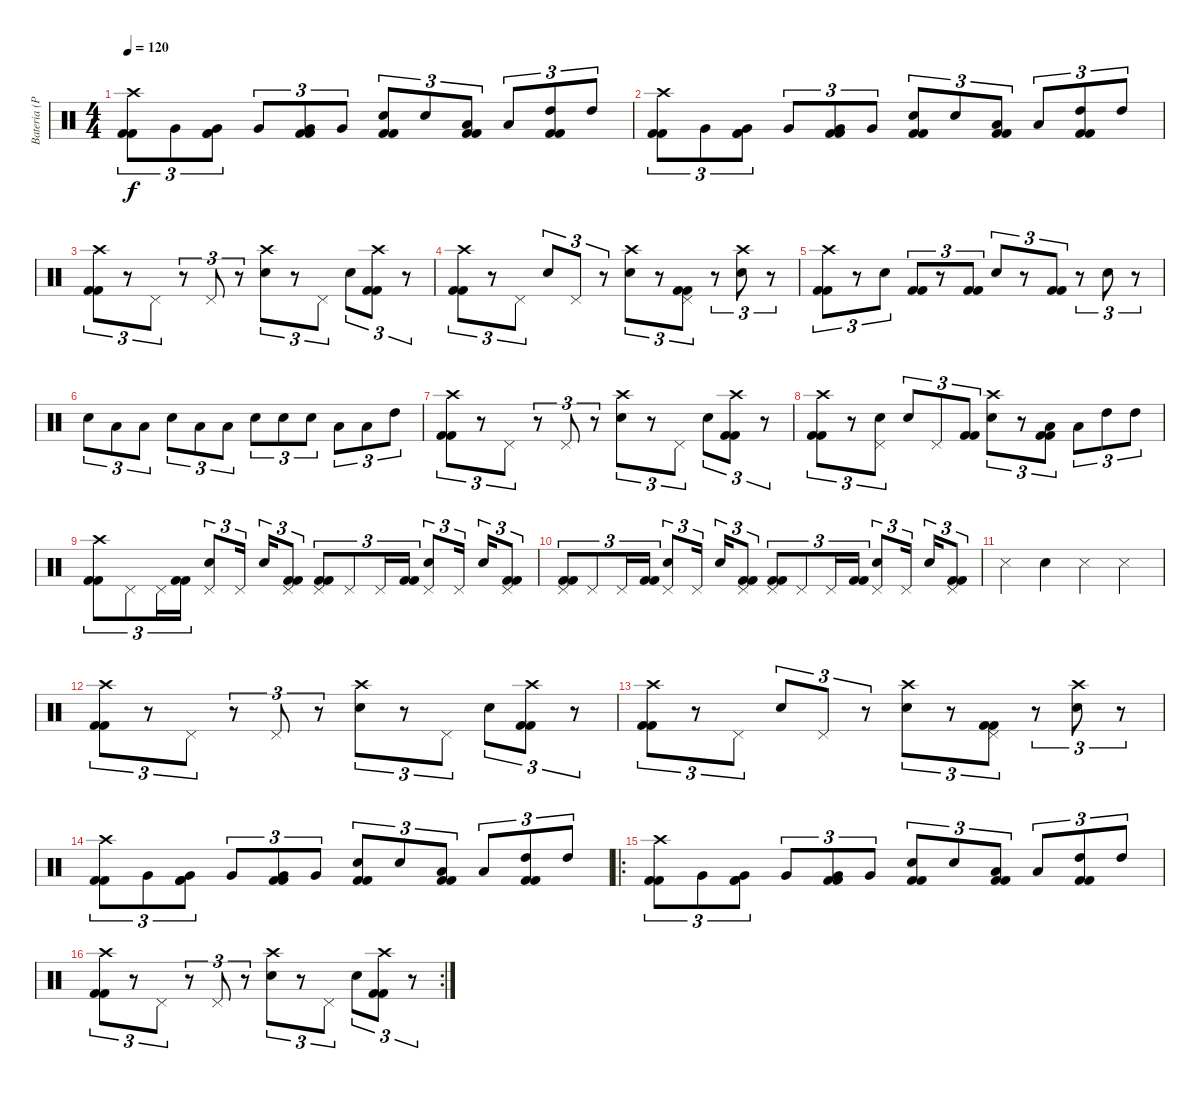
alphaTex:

\track ("Bateria (Pedro Cota)" "Bateria (P") {instrument percussion}
\staff {score}
\articulation defaults
\ts (4 4)
\tempo 120
\clef neutral
\ks c
("Crash high (hit)" "Kick (hit) 2" "Kick (hit) 2").8{tu (3 2) dy f} "Very Low Tom (hit)".8{tu (3 2)} ("Very Low Tom (hit)" "Kick (hit) 2" "Kick (hit) 2").8{tu (3 2)} "Very Low Tom (hit)".8{tu (3 2)} ("Very Low Tom (hit)" "Kick (hit) 2" "Kick (hit) 2").8{tu (3 2)} "Very Low Tom (hit)".8{tu (3 2)} ("Snare (hit) 2" "Kick (hit) 2" "Kick (hit) 2").8{tu (3 2)} "Snare (hit) 2".8{tu (3 2)} ("Low Tom (hit)" "Kick (hit) 2" "Kick (hit) 2").8{tu (3 2)} "Low Tom (hit)".8{tu (3 2)} ("High Tom (hit)" "Kick (hit) 2" "Kick (hit) 2").8{tu (3 2)} "High Tom (hit)".8{tu (3 2)} |
("Crash high (hit)" "Kick (hit) 2" "Kick (hit) 2").8{tu (3 2)} "Very Low Tom (hit)".8{tu (3 2)} ("Very Low Tom (hit)" "Kick (hit) 2" "Kick (hit) 2").8{tu (3 2)} "Very Low Tom (hit)".8{tu (3 2)} ("Very Low Tom (hit)" "Kick (hit) 2" "Kick (hit) 2").8{tu (3 2)} "Very Low Tom (hit)".8{tu (3 2)} ("Snare (hit) 2" "Kick (hit) 2" "Kick (hit) 2").8{tu (3 2)} "Snare (hit) 2".8{tu (3 2)} ("Low Tom (hit)" "Kick (hit) 2" "Kick (hit) 2").8{tu (3 2)} "Low Tom (hit)".8{tu (3 2)} ("High Tom (hit)" "Kick (hit) 2" "Kick (hit) 2").8{tu (3 2)} "High Tom (hit)".8{tu (3 2)} |
("Crash high (hit)" "Kick (hit) 2" "Kick (hit) 2").8{tu (3 2)} r.8{tu (3 2)} "Pedal Hi-Hat (hit)".8{tu (3 2)} r.8{tu (3 2)} "Pedal Hi-Hat (hit)".8{tu (3 2)} r.8{tu (3 2)} ("Crash high (hit)" "Snare (hit) 2").8{tu (3 2)} r.8{tu (3 2)} "Pedal Hi-Hat (hit)".8{tu (3 2)} "Snare (hit) 2".8{tu (3 2)} ("Crash high (hit)" "Kick (hit) 2" "Kick (hit) 2").8{tu (3 2)} r.8{tu (3 2)} |
("Crash high (hit)" "Kick (hit) 2" "Kick (hit) 2").8{tu (3 2)} r.8{tu (3 2)} "Pedal Hi-Hat (hit)".8{tu (3 2)} "Snare (hit) 2".8{tu (3 2)} "Pedal Hi-Hat (hit)".8{tu (3 2)} r.8{tu (3 2)} ("Crash high (hit)" "Snare (hit) 2").8{tu (3 2)} r.8{tu (3 2)} ("Pedal Hi-Hat (hit)" "Kick (hit) 2" "Kick (hit) 2").8{tu (3 2)} r.8{tu (3 2)} ("Crash high (hit)" "Snare (hit) 2").8{tu (3 2)} r.8{tu (3 2)} |
("Crash high (hit)" "Kick (hit) 2" "Kick (hit) 2").8{tu (3 2)} r.8{tu (3 2)} "Snare (hit) 2".8{tu (3 2)} ("Kick (hit) 2" "Kick (hit) 2").8{tu (3 2)} r.8{tu (3 2)} ("Kick (hit) 2" "Kick (hit) 2").8{tu (3 2)} "Snare (hit) 2".8{tu (3 2)} r.8{tu (3 2)} ("Kick (hit) 2" "Kick (hit) 2").8{tu (3 2)} r.8{tu (3 2)} "Snare (hit) 2".8{tu (3 2)} r.8{tu (3 2)} |
"Snare (hit) 2".8{tu (3 2)} "Low Tom (hit)".8{tu (3 2)} "Low Tom (hit)".8{tu (3 2)} "Snare (hit) 2".8{tu (3 2)} "Low Tom (hit)".8{tu (3 2)} "Low Tom (hit)".8{tu (3 2)} "Snare (hit) 2".8{tu (3 2)} "Snare (hit) 2".8{tu (3 2)} "Snare (hit) 2".8{tu (3 2)} "Low Tom (hit)".8{tu (3 2)} "Low Tom (hit)".8{tu (3 2)} "High Tom (hit)".8{tu (3 2)} |
("Crash high (hit)" "Kick (hit) 2" "Kick (hit) 2").8{tu (3 2)} r.8{tu (3 2)} "Pedal Hi-Hat (hit)".8{tu (3 2)} r.8{tu (3 2)} "Pedal Hi-Hat (hit)".8{tu (3 2)} r.8{tu (3 2)} ("Crash high (hit)" "Snare (hit) 2").8{tu (3 2)} r.8{tu (3 2)} "Pedal Hi-Hat (hit)".8{tu (3 2)} "Snare (hit) 2".8{tu (3 2)} ("Crash high (hit)" "Kick (hit) 2" "Kick (hit) 2").8{tu (3 2)} r.8{tu (3 2)} |
("Crash high (hit)" "Kick (hit) 2" "Kick (hit) 2").8{tu (3 2)} r.8{tu (3 2)} ("Pedal Hi-Hat (hit)" "Snare (hit) 2").8{tu (3 2)} "Snare (hit) 2".8{tu (3 2)} "Pedal Hi-Hat (hit)".8{tu (3 2)} ("Kick (hit) 2" "Kick (hit) 2").8{tu (3 2)} ("Crash high (hit)" "Snare (hit) 2").8{tu (3 2)} r.8{tu (3 2)} ("Low Tom (hit)" "Kick (hit) 2" "Kick (hit) 2").8{tu (3 2)} "Low Tom (hit)".8{tu (3 2)} "High Tom (hit)".8{tu (3 2)} "High Tom (hit)".8{tu (3 2)} |
("Crash high (hit)" "Kick (hit) 2" "Kick (hit) 2").8{tu (3 2)} "Pedal Hi-Hat (hit)".8{tu (3 2)} "Pedal Hi-Hat (hit)".16{tu (3 2)} ("Kick (hit) 2" "Kick (hit) 2").16{tu (3 2)} ("Pedal Hi-Hat (hit)" "Snare (hit) 2").8{tu (3 2)} "Pedal Hi-Hat (hit)".16{tu (3 2)} "Snare (hit) 2".16{tu (3 2)} ("Pedal Hi-Hat (hit)" "Kick (hit) 2" "Kick (hit) 2").8{tu (3 2)} ("Pedal Hi-Hat (hit)" "Kick (hit) 2" "Kick (hit) 2").8{tu (3 2)} "Pedal Hi-Hat (hit)".8{tu (3 2)} "Pedal Hi-Hat (hit)".16{tu (3 2)} ("Kick (hit) 2" "Kick (hit) 2").16{tu (3 2)} ("Pedal Hi-Hat (hit)" "Snare (hit) 2").8{tu (3 2)} "Pedal Hi-Hat (hit)".16{tu (3 2)} "Snare (hit) 2".16{tu (3 2)} ("Pedal Hi-Hat (hit)" "Kick (hit) 2" "Kick (hit) 2").8{tu (3 2)} |
("Pedal Hi-Hat (hit)" "Kick (hit) 2" "Kick (hit) 2").8{tu (3 2)} "Pedal Hi-Hat (hit)".8{tu (3 2)} "Pedal Hi-Hat (hit)".16{tu (3 2)} ("Kick (hit) 2" "Kick (hit) 2").16{tu (3 2)} ("Pedal Hi-Hat (hit)" "Snare (hit) 2").8{tu (3 2)} "Pedal Hi-Hat (hit)".16{tu (3 2)} "Snare (hit) 2".16{tu (3 2)} ("Pedal Hi-Hat (hit)" "Kick (hit) 2" "Kick (hit) 2").8{tu (3 2)} ("Pedal Hi-Hat (hit)" "Kick (hit) 2" "Kick (hit) 2").8{tu (3 2)} "Pedal Hi-Hat (hit)".8{tu (3 2)} "Pedal Hi-Hat (hit)".16{tu (3 2)} ("Kick (hit) 2" "Kick (hit) 2").16{tu (3 2)} ("Pedal Hi-Hat (hit)" "Snare (hit) 2").8{tu (3 2)} "Pedal Hi-Hat (hit)".16{tu (3 2)} "Snare (hit) 2".16{tu (3 2)} ("Pedal Hi-Hat (hit)" "Kick (hit) 2" "Kick (hit) 2").8{tu (3 2)} |
"Metronome (hit)".4 "Snare (hit) 2".4 "Metronome (hit)".4 "Metronome (hit)".4 |
("Crash high (hit)" "Kick (hit) 2" "Kick (hit) 2").8{tu (3 2)} r.8{tu (3 2)} "Pedal Hi-Hat (hit)".8{tu (3 2)} r.8{tu (3 2)} "Pedal Hi-Hat (hit)".8{tu (3 2)} r.8{tu (3 2)} ("Crash high (hit)" "Snare (hit) 2").8{tu (3 2)} r.8{tu (3 2)} "Pedal Hi-Hat (hit)".8{tu (3 2)} "Snare (hit) 2".8{tu (3 2)} ("Crash high (hit)" "Kick (hit) 2" "Kick (hit) 2").8{tu (3 2)} r.8{tu (3 2)} |
("Crash high (hit)" "Kick (hit) 2" "Kick (hit) 2").8{tu (3 2)} r.8{tu (3 2)} "Pedal Hi-Hat (hit)".8{tu (3 2)} "Snare (hit) 2".8{tu (3 2)} "Pedal Hi-Hat (hit)".8{tu (3 2)} r.8{tu (3 2)} ("Crash high (hit)" "Snare (hit) 2").8{tu (3 2)} r.8{tu (3 2)} ("Pedal Hi-Hat (hit)" "Kick (hit) 2" "Kick (hit) 2").8{tu (3 2)} r.8{tu (3 2)} ("Crash high (hit)" "Snare (hit) 2").8{tu (3 2)} r.8{tu (3 2)} |
("Crash high (hit)" "Kick (hit) 2" "Kick (hit) 2").8{tu (3 2)} "Very Low Tom (hit)".8{tu (3 2)} ("Very Low Tom (hit)" "Kick (hit) 2" "Kick (hit) 2").8{tu (3 2)} "Very Low Tom (hit)".8{tu (3 2)} ("Very Low Tom (hit)" "Kick (hit) 2" "Kick (hit) 2").8{tu (3 2)} "Very Low Tom (hit)".8{tu (3 2)} ("Snare (hit) 2" "Kick (hit) 2" "Kick (hit) 2").8{tu (3 2)} "Snare (hit) 2".8{tu (3 2)} ("Low Tom (hit)" "Kick (hit) 2" "Kick (hit) 2").8{tu (3 2)} "Low Tom (hit)".8{tu (3 2)} ("High Tom (hit)" "Kick (hit) 2" "Kick (hit) 2").8{tu (3 2)} "High Tom (hit)".8{tu (3 2)} |
\ro
("Crash high (hit)" "Kick (hit) 2" "Kick (hit) 2").8{tu (3 2)} "Very Low Tom (hit)".8{tu (3 2)} ("Very Low Tom (hit)" "Kick (hit) 2" "Kick (hit) 2").8{tu (3 2)} "Very Low Tom (hit)".8{tu (3 2)} ("Very Low Tom (hit)" "Kick (hit) 2" "Kick (hit) 2").8{tu (3 2)} "Very Low Tom (hit)".8{tu (3 2)} ("Snare (hit) 2" "Kick (hit) 2" "Kick (hit) 2").8{tu (3 2)} "Snare (hit) 2".8{tu (3 2)} ("Low Tom (hit)" "Kick (hit) 2" "Kick (hit) 2").8{tu (3 2)} "Low Tom (hit)".8{tu (3 2)} ("High Tom (hit)" "Kick (hit) 2" "Kick (hit) 2").8{tu (3 2)} "High Tom (hit)".8{tu (3 2)} |
\rc 2
("Crash high (hit)" "Kick (hit) 2" "Kick (hit) 2").8{tu (3 2)} r.8{tu (3 2)} "Pedal Hi-Hat (hit)".8{tu (3 2)} r.8{tu (3 2)} "Pedal Hi-Hat (hit)".8{tu (3 2)} r.8{tu (3 2)} ("Crash high (hit)" "Snare (hit) 2").8{tu (3 2)} r.8{tu (3 2)} "Pedal Hi-Hat (hit)".8{tu (3 2)} "Snare (hit) 2".8{tu (3 2)} ("Crash high (hit)" "Kick (hit) 2" "Kick (hit) 2").8{tu (3 2)} r.8{tu (3 2)}
